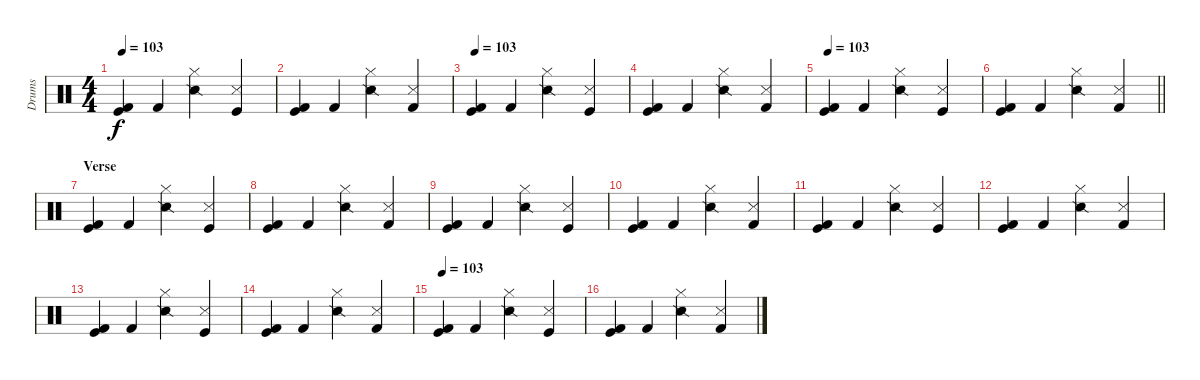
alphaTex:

\track ("Drums" "Drums") {instrument percussion}
\staff {score}
\articulation defaults
\ts (4 4)
\tempo 103
\clef neutral
\ks c
("Kick (hit)" "Kick (hit) 2").4{dy f} "Kick (hit) 2".4 ("Snare (side stick) 2" "Hi-Hat (closed)").4 ("Snare (side stick) 3" "Kick (hit)").4 |
("Kick (hit)" "Kick (hit) 2").4 "Kick (hit) 2".4 ("Snare (side stick) 2" "Hi-Hat (closed)").4 ("Snare (side stick) 3" "Kick (hit) 2").4 |
\tempo 100
\tempo 103
("Kick (hit)" "Kick (hit) 2").4 "Kick (hit) 2".4 ("Snare (side stick) 2" "Hi-Hat (closed)").4 ("Snare (side stick) 3" "Kick (hit)").4 |
("Kick (hit)" "Kick (hit) 2").4 "Kick (hit) 2".4 ("Snare (side stick) 2" "Hi-Hat (closed)").4 ("Snare (side stick) 3" "Kick (hit) 2").4 |
\tempo 103
("Kick (hit)" "Kick (hit) 2").4 "Kick (hit) 2".4 ("Snare (side stick) 2" "Hi-Hat (closed)").4 ("Snare (side stick) 3" "Kick (hit)").4 |
\barLineRight lightlight
("Kick (hit)" "Kick (hit) 2").4 "Kick (hit) 2".4 ("Snare (side stick) 2" "Hi-Hat (closed)").4 ("Snare (side stick) 3" "Kick (hit) 2").4 |
\section ("" "Verse")
("Kick (hit)" "Kick (hit) 2").4 "Kick (hit) 2".4 ("Snare (side stick) 2" "Hi-Hat (closed)").4 ("Snare (side stick) 3" "Kick (hit)").4 |
("Kick (hit)" "Kick (hit) 2").4 "Kick (hit) 2".4 ("Snare (side stick) 2" "Hi-Hat (closed)").4 ("Snare (side stick) 3" "Kick (hit) 2").4 |
("Kick (hit)" "Kick (hit) 2").4 "Kick (hit) 2".4 ("Snare (side stick) 2" "Hi-Hat (closed)").4 ("Snare (side stick) 3" "Kick (hit)").4 |
("Kick (hit)" "Kick (hit) 2").4 "Kick (hit) 2".4 ("Snare (side stick) 2" "Hi-Hat (closed)").4 ("Snare (side stick) 3" "Kick (hit) 2").4 |
("Kick (hit)" "Kick (hit) 2").4 "Kick (hit) 2".4 ("Snare (side stick) 2" "Hi-Hat (closed)").4 ("Snare (side stick) 3" "Kick (hit)").4 |
("Kick (hit)" "Kick (hit) 2").4 "Kick (hit) 2".4 ("Snare (side stick) 2" "Hi-Hat (closed)").4 ("Snare (side stick) 3" "Kick (hit) 2").4 |
("Kick (hit)" "Kick (hit) 2").4 "Kick (hit) 2".4 ("Snare (side stick) 2" "Hi-Hat (closed)").4 ("Snare (side stick) 3" "Kick (hit)").4 |
("Kick (hit)" "Kick (hit) 2").4 "Kick (hit) 2".4 ("Snare (side stick) 2" "Hi-Hat (closed)").4 ("Snare (side stick) 3" "Kick (hit) 2").4 |
\tempo 103
("Kick (hit)" "Kick (hit) 2").4 "Kick (hit) 2".4 ("Snare (side stick) 2" "Hi-Hat (closed)").4 ("Snare (side stick) 3" "Kick (hit)").4 |
("Kick (hit)" "Kick (hit) 2").4 "Kick (hit) 2".4 ("Snare (side stick) 2" "Hi-Hat (closed)").4 ("Snare (side stick) 3" "Kick (hit) 2").4
